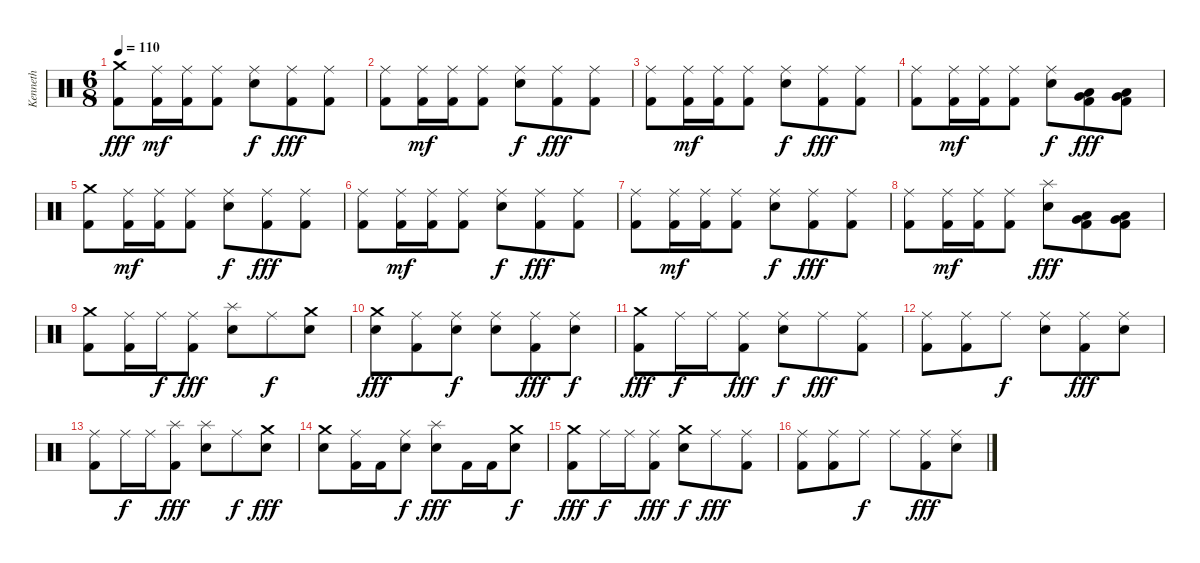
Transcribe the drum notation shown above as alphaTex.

\track ("Kenneth " "Kenneth ") {instrument percussion}
\staff {score}
\articulation defaults
\ts (6 8)
\tempo 110
\clef neutral
\ks c
("Crash medium (hit)" "Kick (hit) 2").8{dy fff} ("Ride (middle)" "Kick (hit) 2").16{dy mf} ("Ride (middle)" "Kick (hit) 2").16 ("Ride (middle)" "Kick (hit) 2").8 ("Ride (middle)" "Electric Snare (hit)").8{dy f} ("Ride (middle)" "Kick (hit) 2").8{dy fff} ("Ride (middle)" "Kick (hit) 2").8 |
("Ride (middle)" "Kick (hit) 2").8 ("Ride (middle)" "Kick (hit) 2").16{dy mf} ("Ride (middle)" "Kick (hit) 2").16 ("Ride (middle)" "Kick (hit) 2").8 ("Ride (middle)" "Electric Snare (hit)").8{dy f} ("Ride (middle)" "Kick (hit) 2").8{dy fff} ("Ride (middle)" "Kick (hit) 2").8 |
("Ride (middle)" "Kick (hit) 2").8 ("Ride (middle)" "Kick (hit) 2").16{dy mf} ("Ride (middle)" "Kick (hit) 2").16 ("Ride (middle)" "Kick (hit) 2").8 ("Ride (middle)" "Electric Snare (hit)").8{dy f} ("Ride (middle)" "Kick (hit) 2").8{dy fff} ("Ride (middle)" "Kick (hit) 2").8 |
("Ride (middle)" "Kick (hit) 2").8 ("Ride (middle)" "Kick (hit) 2").16{dy mf} ("Ride (middle)" "Kick (hit) 2").16 ("Ride (middle)" "Kick (hit) 2").8 ("Ride (middle)" "Electric Snare (hit)").8{dy f} ("Very Low Tom (hit)" "Low Tom (hit)" "Kick (hit) 2").8{dy fff} ("Very Low Tom (hit)" "Low Tom (hit)" "Kick (hit) 2").8 |
("Crash medium (hit)" "Kick (hit) 2").8 ("Ride (middle)" "Kick (hit) 2").16{dy mf} ("Ride (middle)" "Kick (hit) 2").16 ("Ride (middle)" "Kick (hit) 2").8 ("Ride (middle)" "Electric Snare (hit)").8{dy f} ("Ride (middle)" "Kick (hit) 2").8{dy fff} ("Ride (middle)" "Kick (hit) 2").8 |
("Ride (middle)" "Kick (hit) 2").8 ("Ride (middle)" "Kick (hit) 2").16{dy mf} ("Ride (middle)" "Kick (hit) 2").16 ("Ride (middle)" "Kick (hit) 2").8 ("Ride (middle)" "Electric Snare (hit)").8{dy f} ("Ride (middle)" "Kick (hit) 2").8{dy fff} ("Ride (middle)" "Kick (hit) 2").8 |
("Ride (middle)" "Kick (hit) 2").8 ("Ride (middle)" "Kick (hit) 2").16{dy mf} ("Ride (middle)" "Kick (hit) 2").16 ("Ride (middle)" "Kick (hit) 2").8 ("Ride (middle)" "Electric Snare (hit)").8{dy f} ("Ride (middle)" "Kick (hit) 2").8{dy fff} ("Ride (middle)" "Kick (hit) 2").8 |
("Ride (middle)" "Kick (hit) 2").8 ("Ride (middle)" "Kick (hit) 2").16{dy mf} ("Ride (middle)" "Kick (hit) 2").16 ("Ride (middle)" "Kick (hit) 2").8 ("Splash (hit)" "Electric Snare (hit)").8{dy fff} ("Very Low Tom (hit)" "Low Tom (hit)" "Kick (hit) 2").8 ("Very Low Tom (hit)" "Low Tom (hit)" "Kick (hit) 2").8 |
("Crash medium (hit)" "Kick (hit) 2").8 ("Ride (middle)" "Kick (hit) 2").16 "Ride (middle)".16{dy f} ("Ride (middle)" "Kick (hit) 2").8{dy fff} ("Splash (hit)" "Electric Snare (hit)").8 "Ride (middle)".8{dy f} ("Crash medium (hit)" "Electric Snare (hit)").8 |
("Crash medium (hit)" "Electric Snare (hit)").8{dy fff} ("Ride (middle)" "Kick (hit) 2").8 ("Ride (middle)" "Electric Snare (hit)").8{dy f} ("Ride (middle)" "Electric Snare (hit)").8 ("Ride (middle)" "Kick (hit) 2").8{dy fff} ("Ride (middle)" "Electric Snare (hit)").8{dy f} |
("Crash medium (hit)" "Kick (hit) 2").8{dy fff} "Ride (middle)".16{dy f} "Ride (middle)".16 ("Ride (middle)" "Kick (hit) 2").8{dy fff} ("Ride (middle)" "Electric Snare (hit)").8{dy f} "Ride (middle)".8{dy fff} ("Ride (middle)" "Kick (hit) 2").8 |
("Ride (middle)" "Kick (hit) 2").8 ("Ride (middle)" "Kick (hit) 2").8 "Ride (middle)".8{dy f} ("Ride (middle)" "Electric Snare (hit)").8 ("Ride (middle)" "Kick (hit) 2").8{dy fff} ("Ride (middle)" "Electric Snare (hit)").8 |
("Ride (middle)" "Kick (hit) 2").8 "Ride (middle)".16{dy f} "Ride (middle)".16 ("Splash (hit)" "Kick (hit) 2").8{dy fff} ("Splash (hit)" "Electric Snare (hit)").8 "Ride (middle)".8{dy f} ("Crash medium (hit)" "Electric Snare (hit)").8{dy fff} |
("Crash medium (hit)" "Electric Snare (hit)").8 ("Ride (middle)" "Kick (hit) 2").16 "Kick (hit) 2".16 ("Ride (middle)" "Electric Snare (hit)").8{dy f} ("Splash (hit)" "Electric Snare (hit)").8{dy fff} "Kick (hit) 2".16 "Kick (hit) 2".16 ("Crash medium (hit)" "Electric Snare (hit)").8{dy f} |
("Crash medium (hit)" "Kick (hit) 2").8{dy fff} "Ride (middle)".16{dy f} "Ride (middle)".16 ("Ride (middle)" "Kick (hit) 2").8{dy fff} ("Crash medium (hit)" "Electric Snare (hit)").8{dy f} "Ride (middle)".8{dy fff} ("Ride (middle)" "Kick (hit) 2").8 |
("Ride (middle)" "Kick (hit) 2").8 ("Ride (middle)" "Kick (hit) 2").8 "Ride (middle)".8{dy f} "Ride (middle)".8 ("Ride (middle)" "Kick (hit) 2").8{dy fff} ("Ride (middle)" "Electric Snare (hit)").8
